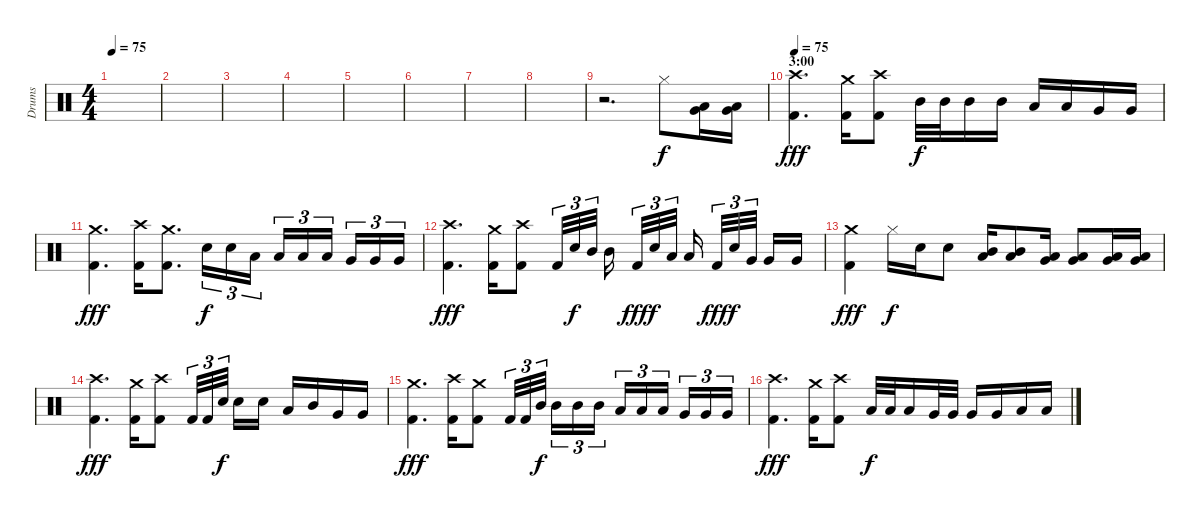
\track ("Drums" "Drums") {instrument percussion}
\staff {score}
\articulation defaults
\ts (4 4)
\tempo 75
\clef neutral
\ks c
|
|
|
|
|
|
|
|
r.2{d} "Hi-Hat (closed)".8 ("Very Low Tom (hit)" "Low Floor Tom (hit)").16 ("Very Low Tom (hit)" "Low Floor Tom (hit)").16 |
\section ("" "3:00")
\tempo 75
("Crash high (hit)" "Kick (hit) 2").4{d dy fff} ("Crash medium (hit)" "Kick (hit) 2").16 ("Crash high (hit)" "Kick (hit) 2").8 "Mid Tom (hit)".32{dy f} "Mid Tom (hit)".32 "Mid Tom (hit)".16 "Mid Tom (hit)".16 "Low Tom (hit)".16 "Low Tom (hit)".16 "Very Low Tom (hit)".16 "Very Low Tom (hit)".16 |
("Crash medium (hit)" "Kick (hit) 2").4{d dy fff} ("Crash high (hit)" "Kick (hit) 2").16 ("Crash medium (hit)" "Kick (hit) 2").8{d} "Snare (hit) 2".16{tu (3 2) dy f} "Snare (hit) 2".16{tu (3 2)} "Low Tom (hit)".16{tu (3 2)} "Low Tom (hit)".16{tu (3 2)} "Low Tom (hit)".16{tu (3 2)} "Low Tom (hit)".16{tu (3 2)} "Very Low Tom (hit)".16{tu (3 2)} "Very Low Tom (hit)".16{tu (3 2)} "Very Low Tom (hit)".16{tu (3 2)} |
("Crash high (hit)" "Kick (hit) 2").4{d dy fff} ("Crash medium (hit)" "Kick (hit) 2").16 ("Crash high (hit)" "Kick (hit) 2").8 "Kick (hit) 2".32{tu (3 2)} "Snare (hit) 2".32{tu (3 2) dy f} "Mid Tom (hit)".32{tu (3 2)} "Mid Tom (hit)".16 "Kick (hit) 2".32{tu (3 2) dy fff} "Snare (hit) 2".32{tu (3 2) dy f} "Low Tom (hit)".32{tu (3 2)} "Low Tom (hit)".16 "Kick (hit) 2".32{tu (3 2) dy fff} "Snare (hit) 2".32{tu (3 2) dy f} "Very Low Tom (hit)".32{tu (3 2)} "Very Low Tom (hit)".16 "Very Low Tom (hit)".16 |
("Crash medium (hit)" "Kick (hit) 2").4{dy fff} "Hi-Hat (closed)".16{dy f} "Snare (hit) 2".16 "Snare (hit) 2".8 ("Mid Tom (hit)" "Low Tom (hit)").16 ("Mid Tom (hit)" "Low Tom (hit)").8 ("Low Tom (hit)" "Very Low Tom (hit)").16 ("Low Tom (hit)" "Very Low Tom (hit)").8 ("Very Low Tom (hit)" "Low Floor Tom (hit)").16 ("Very Low Tom (hit)" "Low Floor Tom (hit)").16 |
("Crash high (hit)" "Kick (hit) 2").4{d dy fff} ("Crash medium (hit)" "Kick (hit) 2").16 ("Crash high (hit)" "Kick (hit) 2").8 "Kick (hit) 2".32{tu (3 2)} "Kick (hit) 2".32{tu (3 2)} "Snare (hit) 2".32{tu (3 2) dy f} "Snare (hit) 2".16 "Snare (hit) 2".16 "Low Tom (hit)".16 "Mid Tom (hit)".16 "Very Low Tom (hit)".16 "Very Low Tom (hit)".16 |
("Crash medium (hit)" "Kick (hit) 2").4{d dy fff} ("Crash high (hit)" "Kick (hit) 2").16 ("Crash medium (hit)" "Kick (hit) 2").8 "Kick (hit) 2".32{tu (3 2)} "Kick (hit) 2".32{tu (3 2)} "Mid Tom (hit)".32{tu (3 2) dy f} "Mid Tom (hit)".16{tu (3 2)} "Mid Tom (hit)".16{tu (3 2)} "Mid Tom (hit)".16{tu (3 2)} "Low Tom (hit)".16{tu (3 2)} "Low Tom (hit)".16{tu (3 2)} "Low Tom (hit)".16{tu (3 2)} "Very Low Tom (hit)".16{tu (3 2)} "Very Low Tom (hit)".16{tu (3 2)} "Very Low Tom (hit)".16{tu (3 2)} |
("Crash high (hit)" "Kick (hit) 2").4{d dy fff} ("Crash medium (hit)" "Kick (hit) 2").16 ("Crash high (hit)" "Kick (hit) 2").8 "Low Tom (hit)".32{dy f} "Low Tom (hit)".32 "Low Tom (hit)".16 "Very Low Tom (hit)".32 "Very Low Tom (hit)".32 "Very Low Tom (hit)".16 "Very Low Tom (hit)".16 "Low Floor Tom (hit)".16 "Low Floor Tom (hit)".16
